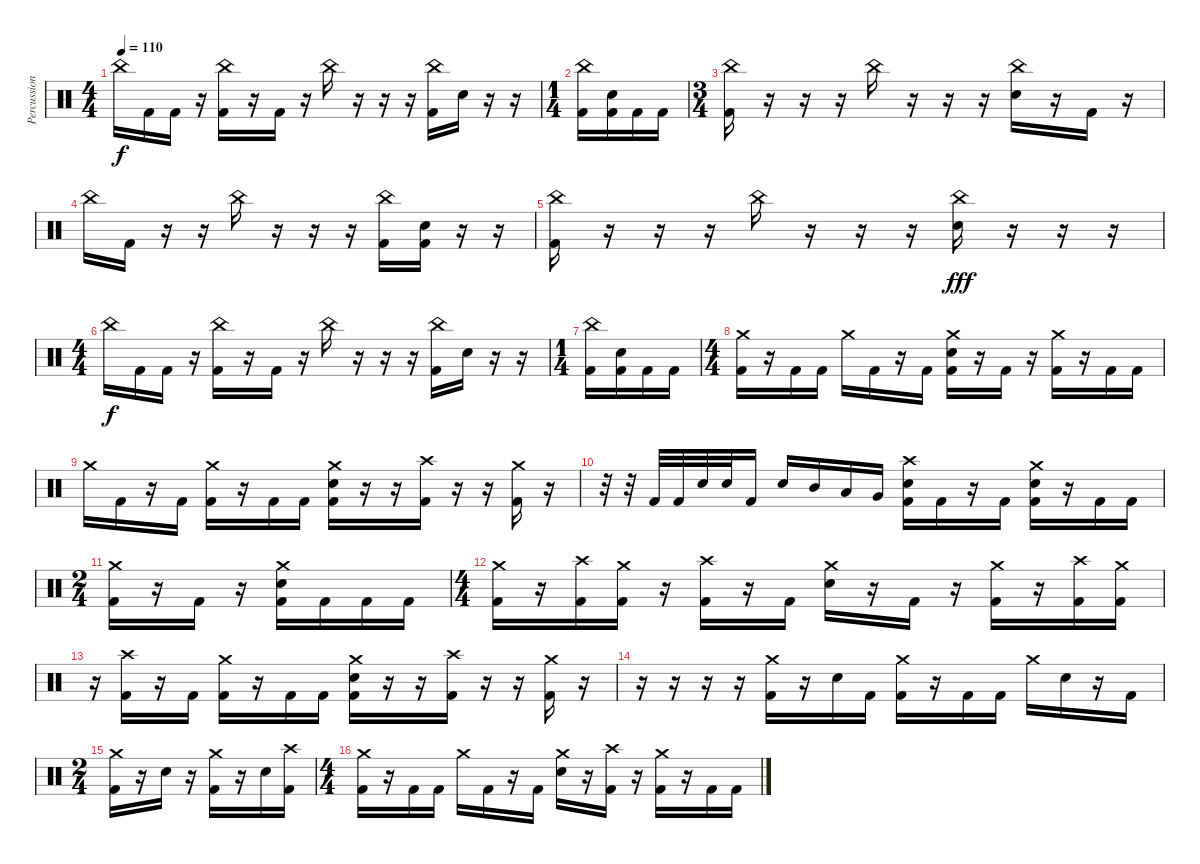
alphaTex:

\track ("Percussion" "Percussion") {instrument percussion}
\staff {score}
\articulation defaults
\ts (4 4)
\tempo 110
\clef neutral
\ks c "China (hit)".16{dy f} "Kick (hit) 2".16 "Kick (hit) 2".16
r.16 ("China (hit)" "Kick (hit) 2").16 r.16 "Kick (hit) 2".16 r.16 "China (hit)".16 r.16 r.16 r.16 ("China (hit)" "Kick (hit) 2").16 "Electric Snare (hit)".16 r.16 r.16 |
\ts (1 4)
("China (hit)" "Kick (hit) 2").16 ("Snare (hit) 2" "Kick (hit) 2").16 "Kick (hit) 2".16 "Kick (hit) 2".16 |
\ts (3 4)
("China (hit)" "Kick (hit) 2").16 r.16 r.16 r.16 "China (hit)".16 r.16 r.16 r.16 ("China (hit)" "Electric Snare (hit)").16 r.16 "Kick (hit) 2".16 r.16 |
"China (hit)".16 "Kick (hit) 2".16 r.16 r.16 "China (hit)".16 r.16 r.16 r.16 ("China (hit)" "Kick (hit) 2").16 ("Electric Snare (hit)" "Kick (hit) 2").16 r.16 r.16 |
("China (hit)" "Kick (hit) 2").16 r.16 r.16 r.16 "China (hit)".16 r.16 r.16 r.16 ("China (hit)" "Electric Snare (hit)").16{dy fff} r.16 r.16 r.16 |
\ts (4 4)
"China (hit)".16{dy f} "Kick (hit) 2".16 "Kick (hit) 2".16 r.16 ("China (hit)" "Kick (hit) 2").16 r.16 "Kick (hit) 2".16 r.16 "China (hit)".16 r.16 r.16 r.16 ("China (hit)" "Kick (hit) 2").16 "Electric Snare (hit)".16 r.16 r.16 |
\ts (1 4)
("China (hit)" "Kick (hit) 2").16 ("Snare (hit) 2" "Kick (hit) 2").16 "Kick (hit) 2".16 "Kick (hit) 2".16 |
\ts (4 4)
("Crash medium (hit)" "Kick (hit) 2").16 r.16 "Kick (hit) 2".16 "Kick (hit) 2".16 "Crash medium (hit)".16 "Kick (hit) 2".16 r.16 "Kick (hit) 2".16 ("Crash medium (hit)" "Snare (hit) 2" "Kick (hit) 2").16 r.16 "Kick (hit) 2".16 r.16 ("Crash medium (hit)" "Kick (hit) 2").16 r.16 "Kick (hit) 2".16 "Kick (hit) 2".16 |
"Crash medium (hit)".16 "Kick (hit) 2".16 r.16 "Kick (hit) 2".16 ("Crash medium (hit)" "Kick (hit) 2").16 r.16 "Kick (hit) 2".16 "Kick (hit) 2".16 ("Crash medium (hit)" "Snare (hit) 2" "Kick (hit) 2").16 r.16 r.16 ("Crash high (hit)" "Kick (hit) 2").16 r.16 r.16 ("Crash medium (hit)" "Kick (hit) 2").16 r.16 |
r.32 r.32 "Kick (hit) 2".32 "Kick (hit) 2".32 "Snare (hit) 2".32 "Snare (hit) 2".32 "Kick (hit) 2".16 "Snare (hit) 2".16 "Mid Tom (hit)".16 "Low Tom (hit)".16 "Very Low Tom (hit)".16 ("Crash high (hit)" "Snare (hit) 2" "Kick (hit) 2").16 "Kick (hit) 2".16 r.16 "Kick (hit) 2".16 ("Crash medium (hit)" "Snare (hit) 2" "Kick (hit) 2").16 r.16 "Kick (hit) 2".16 "Kick (hit) 2".16 |
\ts (2 4)
("Crash medium (hit)" "Kick (hit) 2").16 r.16 "Kick (hit) 2".16 r.16 ("Crash medium (hit)" "Snare (hit) 2" "Kick (hit) 2").16 "Kick (hit) 2".16 "Kick (hit) 2".16 "Kick (hit) 2".16 |
\ts (4 4)
("Crash medium (hit)" "Kick (hit) 2").16 r.16 ("Crash high (hit)" "Kick (hit) 2").16 ("Crash medium (hit)" "Kick (hit) 2").16 r.16 ("Crash high (hit)" "Kick (hit) 2").16 r.16 "Kick (hit) 2".16 ("Crash medium (hit)" "Snare (hit) 2").16 r.16 "Kick (hit) 2".16 r.16 ("Crash medium (hit)" "Kick (hit) 2").16 r.16 ("Crash high (hit)" "Kick (hit) 2").16 ("Crash medium (hit)" "Kick (hit) 2").16 |
r.16 ("Crash high (hit)" "Kick (hit) 2").16 r.16 "Kick (hit) 2".16 ("Crash medium (hit)" "Kick (hit) 2").16 r.16 "Kick (hit) 2".16 "Kick (hit) 2".16 ("Crash medium (hit)" "Snare (hit) 2" "Kick (hit) 2").16 r.16 r.16 ("Crash high (hit)" "Kick (hit) 2").16 r.16 r.16 ("Crash medium (hit)" "Kick (hit) 2").16 r.16 |
r.16 r.16 r.16 r.16 ("Crash medium (hit)" "Kick (hit) 2").16 r.16 "Snare (hit) 2".16 "Kick (hit) 2".16 ("Crash medium (hit)" "Kick (hit) 2").16 r.16 "Kick (hit) 2".16 "Kick (hit) 2".16 "Crash medium (hit)".16 "Snare (hit) 2".16 r.16 "Kick (hit) 2".16 |
\ts (2 4)
("Crash medium (hit)" "Kick (hit) 2").16 r.16 "Snare (hit) 2".16 r.16 ("Crash medium (hit)" "Kick (hit) 2").16 r.16 "Snare (hit) 2".16 ("Crash high (hit)" "Kick (hit) 2").16 |
\ts (4 4)
("Crash medium (hit)" "Kick (hit) 2").16 r.16 "Kick (hit) 2".16 "Kick (hit) 2".16 "Crash medium (hit)".16 "Kick (hit) 2".16 r.16 "Kick (hit) 2".16 ("Crash medium (hit)" "Snare (hit) 2").16 r.16 ("Crash high (hit)" "Kick (hit) 2").16 r.16 ("Crash medium (hit)" "Kick (hit) 2").16 r.16 "Kick (hit) 2".16 "Kick (hit) 2".16
